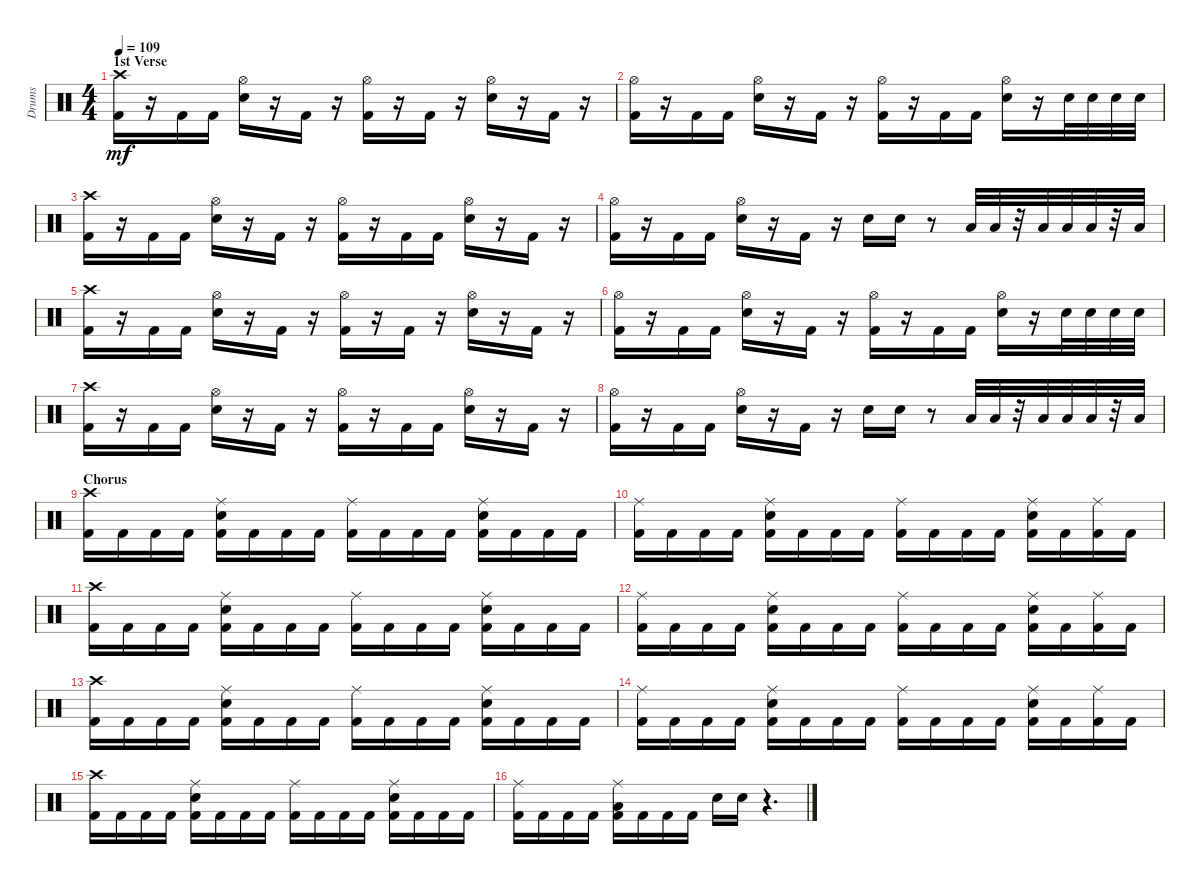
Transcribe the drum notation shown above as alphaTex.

\track ("Drums" "Drums") {instrument percussion}
\staff {score}
\articulation defaults
\ts (4 4)
\section ("" "1st Verse")
\tempo 109
\clef neutral
\ks c
("Crash high (hit)" "Kick (hit) 2").16{dy mf} r.16 "Kick (hit) 2".16 "Kick (hit) 2".16 ("Hi-Hat (open)" "Snare (hit) 2").16 r.16 "Kick (hit) 2".16 r.16 ("Hi-Hat (open)" "Kick (hit) 2").16 r.16 "Kick (hit) 2".16 r.16 ("Hi-Hat (open)" "Snare (hit) 2").16 r.16 "Kick (hit) 2".16 r.16 |
("Kick (hit) 2" "Hi-Hat (open)").16 r.16 "Kick (hit) 2".16 "Kick (hit) 2".16 ("Snare (hit) 2" "Hi-Hat (open)").16 r.16 "Kick (hit) 2".16 r.16 ("Kick (hit) 2" "Hi-Hat (open)").16 r.16 "Kick (hit) 2".16 "Kick (hit) 2".16 ("Hi-Hat (open)" "Snare (hit) 2").16 r.16 "Snare (hit) 2".32 "Snare (hit) 2".32 "Snare (hit) 2".32 "Snare (hit) 2".32 |
("Crash high (hit)" "Kick (hit) 2").16 r.16 "Kick (hit) 2".16 "Kick (hit) 2".16 ("Hi-Hat (open)" "Snare (hit) 2").16 r.16 "Kick (hit) 2".16 r.16 ("Hi-Hat (open)" "Kick (hit) 2").16 r.16 "Kick (hit) 2".16 "Kick (hit) 2".16 ("Hi-Hat (open)" "Snare (hit) 2").16 r.16 "Kick (hit) 2".16 r.16 |
("Kick (hit) 2" "Hi-Hat (open)").16 r.16 "Kick (hit) 2".16 "Kick (hit) 2".16 ("Snare (hit) 2" "Hi-Hat (open)").16 r.16 "Kick (hit) 2".16 r.16 "Snare (hit) 2".16 "Snare (hit) 2".16 r.8 "Low Tom (hit)".32 "Low Tom (hit)".32 r.32 "Low Tom (hit)".32 "Low Floor Tom (hit)".32 "Low Floor Tom (hit)".32 r.32 "Low Floor Tom (hit)".32 |
("Crash high (hit)" "Kick (hit) 2").16 r.16 "Kick (hit) 2".16 "Kick (hit) 2".16 ("Hi-Hat (open)" "Snare (hit) 2").16 r.16 "Kick (hit) 2".16 r.16 ("Hi-Hat (open)" "Kick (hit) 2").16 r.16 "Kick (hit) 2".16 r.16 ("Hi-Hat (open)" "Snare (hit) 2").16 r.16 "Kick (hit) 2".16 r.16 |
("Kick (hit) 2" "Hi-Hat (open)").16 r.16 "Kick (hit) 2".16 "Kick (hit) 2".16 ("Snare (hit) 2" "Hi-Hat (open)").16 r.16 "Kick (hit) 2".16 r.16 ("Kick (hit) 2" "Hi-Hat (open)").16 r.16 "Kick (hit) 2".16 "Kick (hit) 2".16 ("Hi-Hat (open)" "Snare (hit) 2").16 r.16 "Snare (hit) 2".32 "Snare (hit) 2".32 "Snare (hit) 2".32 "Snare (hit) 2".32 |
("Crash high (hit)" "Kick (hit) 2").16 r.16 "Kick (hit) 2".16 "Kick (hit) 2".16 ("Hi-Hat (open)" "Snare (hit) 2").16 r.16 "Kick (hit) 2".16 r.16 ("Hi-Hat (open)" "Kick (hit) 2").16 r.16 "Kick (hit) 2".16 "Kick (hit) 2".16 ("Hi-Hat (open)" "Snare (hit) 2").16 r.16 "Kick (hit) 2".16 r.16 |
("Kick (hit) 2" "Hi-Hat (open)").16 r.16 "Kick (hit) 2".16 "Kick (hit) 2".16 ("Snare (hit) 2" "Hi-Hat (open)").16 r.16 "Kick (hit) 2".16 r.16 "Snare (hit) 2".16 "Snare (hit) 2".16 r.8 "Low Tom (hit)".32 "Low Tom (hit)".32 r.32 "Low Floor Tom (hit)".32 "Low Floor Tom (hit)".32 "Low Floor Tom (hit)".32 r.32 "Low Floor Tom (hit)".32 |
\section ("" "Chorus")
("Kick (hit) 2" "Crash high (hit)").16 "Kick (hit) 2".16 "Kick (hit) 2".16 "Kick (hit) 2".16 ("Kick (hit) 2" "Snare (hit) 2" "Ride (middle)").16 "Kick (hit) 2".16 "Kick (hit) 2".16 "Kick (hit) 2".16 ("Kick (hit) 2" "Ride (middle)").16 "Kick (hit) 2".16 "Kick (hit) 2".16 "Kick (hit) 2".16 ("Kick (hit) 2" "Snare (hit) 2" "Ride (middle)").16 "Kick (hit) 2".16 "Kick (hit) 2".16 "Kick (hit) 2".16 |
("Ride (middle)" "Kick (hit) 2").16 "Kick (hit) 2".16 "Kick (hit) 2".16 "Kick (hit) 2".16 ("Ride (middle)" "Kick (hit) 2" "Snare (hit) 2").16 "Kick (hit) 2".16 "Kick (hit) 2".16 "Kick (hit) 2".16 ("Ride (middle)" "Kick (hit) 2").16 "Kick (hit) 2".16 "Kick (hit) 2".16 "Kick (hit) 2".16 ("Kick (hit) 2" "Snare (hit) 2" "Ride (middle)").16 "Kick (hit) 2".16 ("Kick (hit) 2" "Ride (middle)").16 "Kick (hit) 2".16 |
("Kick (hit) 2" "Crash high (hit)").16 "Kick (hit) 2".16 "Kick (hit) 2".16 "Kick (hit) 2".16 ("Kick (hit) 2" "Snare (hit) 2" "Ride (middle)").16 "Kick (hit) 2".16 "Kick (hit) 2".16 "Kick (hit) 2".16 ("Kick (hit) 2" "Ride (middle)").16 "Kick (hit) 2".16 "Kick (hit) 2".16 "Kick (hit) 2".16 ("Kick (hit) 2" "Snare (hit) 2" "Ride (middle)").16 "Kick (hit) 2".16 "Kick (hit) 2".16 "Kick (hit) 2".16 |
("Ride (middle)" "Kick (hit) 2").16 "Kick (hit) 2".16 "Kick (hit) 2".16 "Kick (hit) 2".16 ("Ride (middle)" "Kick (hit) 2" "Snare (hit) 2").16 "Kick (hit) 2".16 "Kick (hit) 2".16 "Kick (hit) 2".16 ("Ride (middle)" "Kick (hit) 2").16 "Kick (hit) 2".16 "Kick (hit) 2".16 "Kick (hit) 2".16 ("Kick (hit) 2" "Snare (hit) 2" "Ride (middle)").16 "Kick (hit) 2".16 ("Kick (hit) 2" "Ride (middle)").16 "Kick (hit) 2".16 |
("Kick (hit) 2" "Crash high (hit)").16 "Kick (hit) 2".16 "Kick (hit) 2".16 "Kick (hit) 2".16 ("Kick (hit) 2" "Snare (hit) 2" "Ride (middle)").16 "Kick (hit) 2".16 "Kick (hit) 2".16 "Kick (hit) 2".16 ("Kick (hit) 2" "Ride (middle)").16 "Kick (hit) 2".16 "Kick (hit) 2".16 "Kick (hit) 2".16 ("Kick (hit) 2" "Snare (hit) 2" "Ride (middle)").16 "Kick (hit) 2".16 "Kick (hit) 2".16 "Kick (hit) 2".16 |
("Ride (middle)" "Kick (hit) 2").16 "Kick (hit) 2".16 "Kick (hit) 2".16 "Kick (hit) 2".16 ("Ride (middle)" "Kick (hit) 2" "Snare (hit) 2").16 "Kick (hit) 2".16 "Kick (hit) 2".16 "Kick (hit) 2".16 ("Ride (middle)" "Kick (hit) 2").16 "Kick (hit) 2".16 "Kick (hit) 2".16 "Kick (hit) 2".16 ("Kick (hit) 2" "Snare (hit) 2" "Ride (middle)").16 "Kick (hit) 2".16 ("Kick (hit) 2" "Ride (middle)").16 "Kick (hit) 2".16 |
("Kick (hit) 2" "Crash high (hit)").16 "Kick (hit) 2".16 "Kick (hit) 2".16 "Kick (hit) 2".16 ("Kick (hit) 2" "Snare (hit) 2" "Ride (middle)").16 "Kick (hit) 2".16 "Kick (hit) 2".16 "Kick (hit) 2".16 ("Kick (hit) 2" "Ride (middle)").16 "Kick (hit) 2".16 "Kick (hit) 2".16 "Kick (hit) 2".16 ("Kick (hit) 2" "Snare (hit) 2" "Ride (middle)").16 "Kick (hit) 2".16 "Kick (hit) 2".16 "Kick (hit) 2".16 |
("Kick (hit) 2" "Ride (middle)").16 "Kick (hit) 2".16 "Kick (hit) 2".16 "Kick (hit) 2".16 ("Low Floor Tom (hit)" "Kick (hit) 2" "Ride (middle)").16 "Kick (hit) 2".16 "Kick (hit) 2".16 "Kick (hit) 2".16 "Snare (hit) 2".16 "Snare (hit) 2".16 r.4{d}
